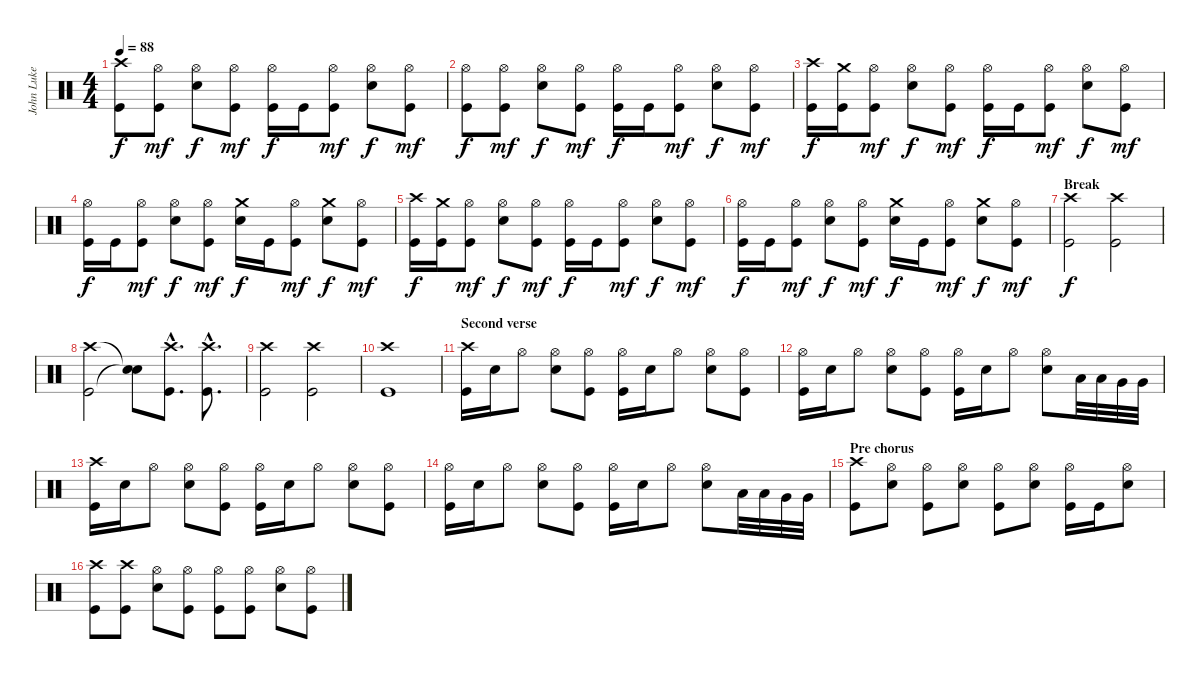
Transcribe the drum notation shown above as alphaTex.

\track ("John Luke (Drums)" "John Luke ") {instrument percussion}
\staff {score}
\articulation defaults
\ts (4 4)
\tempo 88
\clef neutral
\ks c
("Crash high (hit)" "Kick (hit)").8{dy f} ("Hi-Hat (open)" "Kick (hit)").8{dy mf} ("Hi-Hat (open)" "Electric Snare (hit)").8{dy f} ("Hi-Hat (open)" "Kick (hit)").8{dy mf} ("Hi-Hat (open)" "Kick (hit)").16{dy f} "Kick (hit)".16 ("Hi-Hat (open)" "Kick (hit)").8{dy mf} ("Hi-Hat (open)" "Electric Snare (hit)").8{dy f} ("Hi-Hat (open)" "Kick (hit)").8{dy mf} |
("Hi-Hat (open)" "Kick (hit)").8{dy f} ("Hi-Hat (open)" "Kick (hit)").8{dy mf} ("Hi-Hat (open)" "Electric Snare (hit)").8{dy f} ("Hi-Hat (open)" "Kick (hit)").8{dy mf} ("Hi-Hat (open)" "Kick (hit)").16{dy f} "Kick (hit)".16 ("Hi-Hat (open)" "Kick (hit)").8{dy mf} ("Hi-Hat (open)" "Electric Snare (hit)").8{dy f} ("Hi-Hat (open)" "Kick (hit)").8{dy mf} |
("Crash high (hit)" "Kick (hit)").16{dy f} ("Crash medium (hit)" "Kick (hit)").16 ("Hi-Hat (open)" "Kick (hit)").8{dy mf} ("Hi-Hat (open)" "Electric Snare (hit)").8{dy f} ("Hi-Hat (open)" "Kick (hit)").8{dy mf} ("Hi-Hat (open)" "Kick (hit)").16{dy f} "Kick (hit)".16 ("Hi-Hat (open)" "Kick (hit)").8{dy mf} ("Hi-Hat (open)" "Electric Snare (hit)").8{dy f} ("Hi-Hat (open)" "Kick (hit)").8{dy mf} |
("Hi-Hat (open)" "Kick (hit)").16{dy f} "Kick (hit)".16 ("Hi-Hat (open)" "Kick (hit)").8{dy mf} ("Hi-Hat (open)" "Electric Snare (hit)").8{dy f} ("Hi-Hat (open)" "Kick (hit)").8{dy mf} ("Crash medium (hit)" "Electric Snare (hit)").16{dy f} "Kick (hit)".16 ("Hi-Hat (open)" "Kick (hit)").8{dy mf} ("Crash medium (hit)" "Electric Snare (hit)").8{dy f} ("Hi-Hat (open)" "Kick (hit)").8{dy mf} |
("Crash high (hit)" "Kick (hit)").16{dy f} ("Crash medium (hit)" "Kick (hit)").16 ("Hi-Hat (open)" "Kick (hit)").8{dy mf} ("Hi-Hat (open)" "Electric Snare (hit)").8{dy f} ("Hi-Hat (open)" "Kick (hit)").8{dy mf} ("Hi-Hat (open)" "Kick (hit)").16{dy f} "Kick (hit)".16 ("Hi-Hat (open)" "Kick (hit)").8{dy mf} ("Hi-Hat (open)" "Electric Snare (hit)").8{dy f} ("Hi-Hat (open)" "Kick (hit)").8{dy mf} |
("Hi-Hat (open)" "Kick (hit)").16{dy f} "Kick (hit)".16 ("Hi-Hat (open)" "Kick (hit)").8{dy mf} ("Hi-Hat (open)" "Electric Snare (hit)").8{dy f} ("Hi-Hat (open)" "Kick (hit)").8{dy mf} ("Crash medium (hit)" "Electric Snare (hit)").16{dy f} "Kick (hit)".16 ("Hi-Hat (open)" "Kick (hit)").8{dy mf} ("Crash medium (hit)" "Electric Snare (hit)").8{dy f} ("Hi-Hat (open)" "Kick (hit)").8{dy mf} |
\section ("" "Break")
("Crash high (hit)" "Kick (hit)").2{dy f} ("Crash high (hit)" "Kick (hit)").2 |
("Crash high (hit)" "Kick (hit)").2 ("Snare (hit)"{t} "Snare (hit)"{t}).8 ("Crash high (hit)"{hac} "Kick (hit)"{hac}).8{d} ("Crash high (hit)"{hac} "Kick (hit)"{hac}).8{d} |
("Crash high (hit)" "Kick (hit)").2 ("Crash high (hit)" "Kick (hit)").2 |
("Crash high (hit)" "Kick (hit)").1 |
\section ("" "Second verse")
("Crash high (hit)" "Kick (hit)").16 "Electric Snare (hit)".16 "Hi-Hat (open)".8 ("Hi-Hat (open)" "Electric Snare (hit)").8 ("Hi-Hat (open)" "Kick (hit)").8 ("Hi-Hat (open)" "Kick (hit)").16 "Electric Snare (hit)".16 "Hi-Hat (open)".8 ("Hi-Hat (open)" "Electric Snare (hit)").8 ("Hi-Hat (open)" "Kick (hit)").8 |
("Hi-Hat (open)" "Kick (hit)").16 "Electric Snare (hit)".16 "Hi-Hat (open)".8 ("Hi-Hat (open)" "Electric Snare (hit)").8 ("Hi-Hat (open)" "Kick (hit)").8 ("Hi-Hat (open)" "Kick (hit)").16 "Electric Snare (hit)".16 "Hi-Hat (open)".8 ("Hi-Hat (open)" "Electric Snare (hit)").8 "Low Tom (hit)".32 "Low Tom (hit)".32 "Very Low Tom (hit)".32 "Very Low Tom (hit)".32 |
("Crash high (hit)" "Kick (hit)").16 "Electric Snare (hit)".16 "Hi-Hat (open)".8 ("Hi-Hat (open)" "Electric Snare (hit)").8 ("Hi-Hat (open)" "Kick (hit)").8 ("Hi-Hat (open)" "Kick (hit)").16 "Electric Snare (hit)".16 "Hi-Hat (open)".8 ("Hi-Hat (open)" "Electric Snare (hit)").8 ("Hi-Hat (open)" "Kick (hit)").8 |
("Hi-Hat (open)" "Kick (hit)").16 "Electric Snare (hit)".16 "Hi-Hat (open)".8 ("Hi-Hat (open)" "Electric Snare (hit)").8 ("Hi-Hat (open)" "Kick (hit)").8 ("Hi-Hat (open)" "Kick (hit)").16 "Electric Snare (hit)".16 "Hi-Hat (open)".8 ("Hi-Hat (open)" "Electric Snare (hit)").8 "Low Tom (hit)".32 "Low Tom (hit)".32 "Very Low Tom (hit)".32 "Very Low Tom (hit)".32 |
\section ("" "Pre chorus")
("Crash high (hit)" "Kick (hit)").8 ("Hi-Hat (open)" "Electric Snare (hit)").8 ("Hi-Hat (open)" "Kick (hit)").8 ("Hi-Hat (open)" "Electric Snare (hit)").8 ("Hi-Hat (open)" "Kick (hit)").8 ("Hi-Hat (open)" "Electric Snare (hit)").8 ("Hi-Hat (open)" "Kick (hit)").16 "Kick (hit)".16 ("Hi-Hat (open)" "Electric Snare (hit)").8 |
("Crash high (hit)" "Kick (hit)").8 ("Crash high (hit)" "Kick (hit)").8 ("Hi-Hat (open)" "Electric Snare (hit)").8 ("Hi-Hat (open)" "Kick (hit)").8 ("Hi-Hat (open)" "Kick (hit)").8 ("Hi-Hat (open)" "Kick (hit)").8 ("Hi-Hat (open)" "Electric Snare (hit)").8 ("Hi-Hat (open)" "Kick (hit)").8
